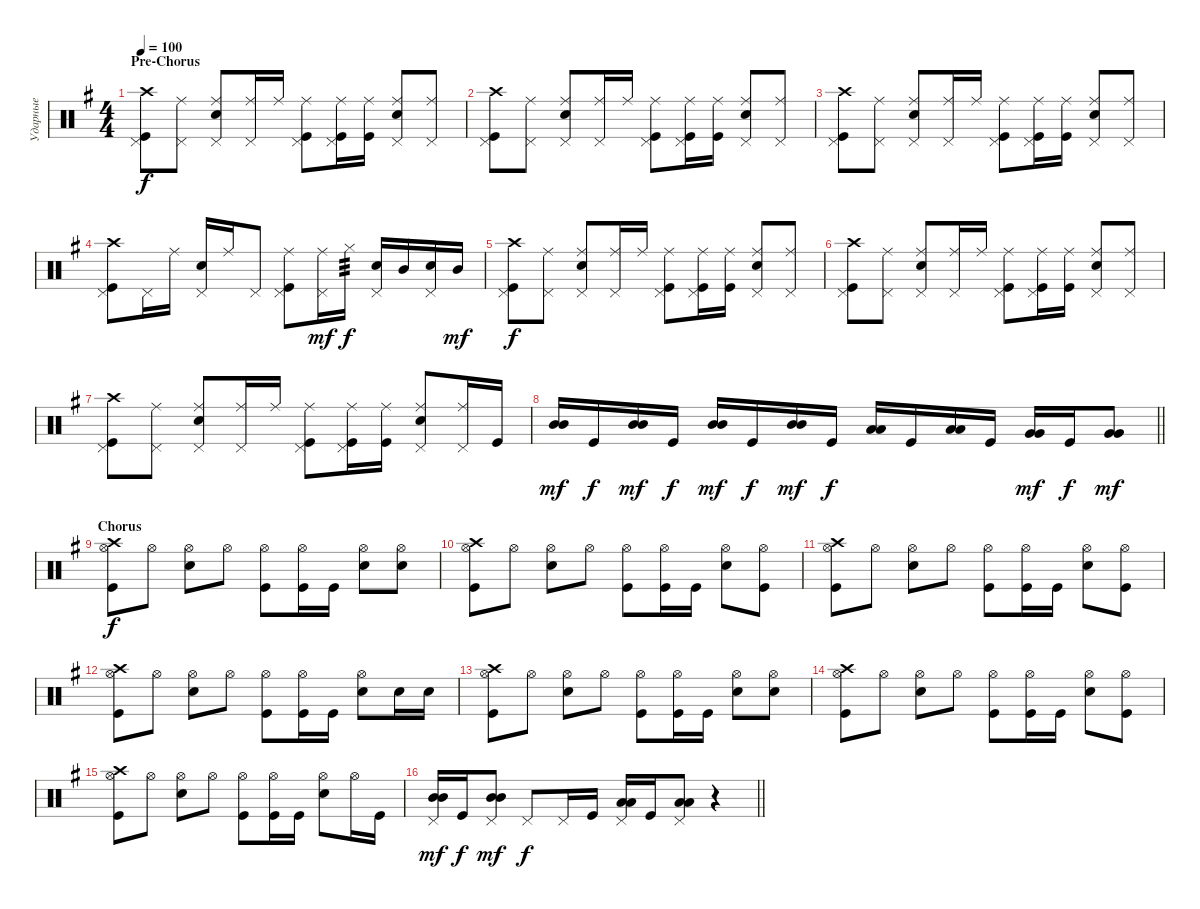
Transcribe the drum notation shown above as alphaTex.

\track ("Ударные" "Ударные") {instrument percussion}
\staff {score}
\articulation defaults
\ts (4 4)
\section ("" "Pre-Chorus")
\tempo 100
\clef neutral
\ks eminor
("Crash high (hit)" "Kick (hit)" "Pedal Hi-Hat (hit)").8{dy f} ("Pedal Hi-Hat (hit)" "Ride (middle)").8 ("Ride (middle)" "Snare (hit) 2" "Pedal Hi-Hat (hit)").8 ("Ride (middle)" "Pedal Hi-Hat (hit)").16 "Ride (middle)".16 ("Ride (middle)" "Kick (hit)" "Pedal Hi-Hat (hit)").8 ("Ride (middle)" "Pedal Hi-Hat (hit)" "Kick (hit)").16 ("Ride (middle)" "Kick (hit)").16 ("Ride (middle)" "Snare (hit) 2" "Pedal Hi-Hat (hit)").8 ("Ride (middle)" "Pedal Hi-Hat (hit)").8 |
("Crash high (hit)" "Kick (hit)" "Pedal Hi-Hat (hit)").8 ("Pedal Hi-Hat (hit)" "Ride (middle)").8 ("Ride (middle)" "Snare (hit) 2" "Pedal Hi-Hat (hit)").8 ("Ride (middle)" "Pedal Hi-Hat (hit)").16 "Ride (middle)".16 ("Ride (middle)" "Kick (hit)" "Pedal Hi-Hat (hit)").8 ("Ride (middle)" "Pedal Hi-Hat (hit)" "Kick (hit)").16 ("Ride (middle)" "Kick (hit)").16 ("Ride (middle)" "Snare (hit) 2" "Pedal Hi-Hat (hit)").8 ("Ride (middle)" "Pedal Hi-Hat (hit)").8 |
("Crash high (hit)" "Kick (hit)" "Pedal Hi-Hat (hit)").8 ("Pedal Hi-Hat (hit)" "Ride (middle)").8 ("Ride (middle)" "Snare (hit) 2" "Pedal Hi-Hat (hit)").8 ("Ride (middle)" "Pedal Hi-Hat (hit)").16 "Ride (middle)".16 ("Ride (middle)" "Kick (hit)" "Pedal Hi-Hat (hit)").8 ("Ride (middle)" "Pedal Hi-Hat (hit)" "Kick (hit)").16 ("Ride (middle)" "Kick (hit)").16 ("Ride (middle)" "Snare (hit) 2" "Pedal Hi-Hat (hit)").8 ("Ride (middle)" "Pedal Hi-Hat (hit)").8 |
("Crash high (hit)" "Kick (hit)" "Pedal Hi-Hat (hit)").8 "Pedal Hi-Hat (hit)".16 "Ride (middle)".16 ("Snare (hit) 2" "Pedal Hi-Hat (hit)").16 "Ride (middle)".16 "Pedal Hi-Hat (hit)".8 ("Ride (middle)" "Kick (hit)" "Pedal Hi-Hat (hit)").8 ("Pedal Hi-Hat (hit)" "Ride (middle)").16{dy mf} "Hi-Hat (closed)".16{tp 3 dy f} ("Snare (hit) 2" "Pedal Hi-Hat (hit)").16 "Mid Tom (hit)".16 ("Snare (hit) 2" "Pedal Hi-Hat (hit)").16 "Mid Tom (hit)".16{dy mf} |
("Crash high (hit)" "Kick (hit)" "Pedal Hi-Hat (hit)").8{dy f} ("Pedal Hi-Hat (hit)" "Ride (middle)").8 ("Ride (middle)" "Snare (hit) 2" "Pedal Hi-Hat (hit)").8 ("Ride (middle)" "Pedal Hi-Hat (hit)").16 "Ride (middle)".16 ("Ride (middle)" "Kick (hit)" "Pedal Hi-Hat (hit)").8 ("Ride (middle)" "Pedal Hi-Hat (hit)" "Kick (hit)").16 ("Ride (middle)" "Kick (hit)").16 ("Ride (middle)" "Snare (hit) 2" "Pedal Hi-Hat (hit)").8 ("Ride (middle)" "Pedal Hi-Hat (hit)").8 |
("Crash high (hit)" "Kick (hit)" "Pedal Hi-Hat (hit)").8 ("Pedal Hi-Hat (hit)" "Ride (middle)").8 ("Ride (middle)" "Snare (hit) 2" "Pedal Hi-Hat (hit)").8 ("Ride (middle)" "Pedal Hi-Hat (hit)").16 "Ride (middle)".16 ("Ride (middle)" "Kick (hit)" "Pedal Hi-Hat (hit)").8 ("Ride (middle)" "Pedal Hi-Hat (hit)" "Kick (hit)").16 ("Ride (middle)" "Kick (hit)").16 ("Ride (middle)" "Snare (hit) 2" "Pedal Hi-Hat (hit)").8 ("Ride (middle)" "Pedal Hi-Hat (hit)").8 |
("Crash high (hit)" "Kick (hit)" "Pedal Hi-Hat (hit)").8 ("Pedal Hi-Hat (hit)" "Ride (middle)").8 ("Ride (middle)" "Snare (hit) 2" "Pedal Hi-Hat (hit)").8 ("Ride (middle)" "Pedal Hi-Hat (hit)").16 "Ride (middle)".16 ("Ride (middle)" "Kick (hit)" "Pedal Hi-Hat (hit)").8 ("Ride (middle)" "Pedal Hi-Hat (hit)" "Kick (hit)").16 ("Ride (middle)" "Kick (hit)").16 ("Ride (middle)" "Snare (hit) 2" "Pedal Hi-Hat (hit)").8 ("Ride (middle)" "Pedal Hi-Hat (hit)").16 "Kick (hit)".16 |
\barLineRight lightlight
("Mid Tom (hit)" "Mid Tom (hit)").16{bd 60 dy mf} "Kick (hit)".16{dy f} ("Mid Tom (hit)" "Mid Tom (hit)").16{bd 120 dy mf} "Kick (hit)".16{dy f} ("Mid Tom (hit)" "Mid Tom (hit)").16{bd 60 dy mf} "Kick (hit)".16{dy f} ("Mid Tom (hit)" "Mid Tom (hit)").16{bd 120 dy mf} "Kick (hit)".16{dy f} ("Low Tom (hit)" "Low Tom (hit)").16{bd 120} "Kick (hit)".16 ("Low Tom (hit)" "Low Tom (hit)").16{bd 120} "Kick (hit)".16 ("Very Low Tom (hit)" "Very Low Tom (hit)").16{bd 120 dy mf} "Kick (hit)".16{dy f} ("Very Low Tom (hit)" "Very Low Tom (hit)").8{bd 120 dy mf} |
\section ("" "Chorus")
("Hi-Hat (open)" "Crash high (hit)" "Kick (hit)").8{dy f} "Hi-Hat (open)".8 ("Hi-Hat (open)" "Snare (hit) 2").8 "Hi-Hat (open)".8 ("Hi-Hat (open)" "Kick (hit)").8 ("Hi-Hat (open)" "Kick (hit)").16 "Kick (hit)".16 ("Hi-Hat (open)" "Snare (hit) 2").8 ("Hi-Hat (open)" "Snare (hit) 2").8 |
("Hi-Hat (open)" "Crash high (hit)" "Kick (hit)").8 "Hi-Hat (open)".8 ("Hi-Hat (open)" "Snare (hit) 2").8 "Hi-Hat (open)".8 ("Hi-Hat (open)" "Kick (hit)").8 ("Hi-Hat (open)" "Kick (hit)").16 "Kick (hit)".16 ("Hi-Hat (open)" "Snare (hit) 2").8 ("Hi-Hat (open)" "Kick (hit)").8 |
("Hi-Hat (open)" "Crash high (hit)" "Kick (hit)").8 "Hi-Hat (open)".8 ("Hi-Hat (open)" "Snare (hit) 2").8 "Hi-Hat (open)".8 ("Hi-Hat (open)" "Kick (hit)").8 ("Hi-Hat (open)" "Kick (hit)").16 "Kick (hit)".16 ("Hi-Hat (open)" "Snare (hit) 2").8 ("Hi-Hat (open)" "Kick (hit)").8 |
("Hi-Hat (open)" "Crash high (hit)" "Kick (hit)").8 "Hi-Hat (open)".8 ("Hi-Hat (open)" "Snare (hit) 2").8 "Hi-Hat (open)".8 ("Hi-Hat (open)" "Kick (hit)").8 ("Hi-Hat (open)" "Kick (hit)").16 "Kick (hit)".16 ("Hi-Hat (open)" "Snare (hit) 2").8 "Snare (hit) 2".16 "Snare (hit) 2".16 |
("Hi-Hat (open)" "Crash high (hit)" "Kick (hit)").8 "Hi-Hat (open)".8 ("Hi-Hat (open)" "Snare (hit) 2").8 "Hi-Hat (open)".8 ("Hi-Hat (open)" "Kick (hit)").8 ("Hi-Hat (open)" "Kick (hit)").16 "Kick (hit)".16 ("Hi-Hat (open)" "Snare (hit) 2").8 ("Hi-Hat (open)" "Snare (hit) 2").8 |
("Hi-Hat (open)" "Crash high (hit)" "Kick (hit)").8 "Hi-Hat (open)".8 ("Hi-Hat (open)" "Snare (hit) 2").8 "Hi-Hat (open)".8 ("Hi-Hat (open)" "Kick (hit)").8 ("Hi-Hat (open)" "Kick (hit)").16 "Kick (hit)".16 ("Hi-Hat (open)" "Snare (hit) 2").8 ("Hi-Hat (open)" "Kick (hit)").8 |
("Hi-Hat (open)" "Crash high (hit)" "Kick (hit)").8 "Hi-Hat (open)".8 ("Hi-Hat (open)" "Snare (hit) 2").8 "Hi-Hat (open)".8 ("Hi-Hat (open)" "Kick (hit)").8 ("Hi-Hat (open)" "Kick (hit)").16 "Kick (hit)".16 ("Hi-Hat (open)" "Snare (hit) 2").8 "Hi-Hat (open)".16 "Kick (hit)".16 |
\barLineRight lightlight
("Mid Tom (hit)" "Mid Tom (hit)" "Pedal Hi-Hat (hit)").16{bd 120 dy mf} "Kick (hit)".16{dy f} ("Pedal Hi-Hat (hit)" "Mid Tom (hit)" "Mid Tom (hit)").8{bd 120 dy mf} "Pedal Hi-Hat (hit)".8{dy f} "Pedal Hi-Hat (hit)".16 "Kick (hit)".16 ("Low Tom (hit)" "Low Tom (hit)" "Pedal Hi-Hat (hit)").16{bd 120} "Kick (hit)".16 ("Low Tom (hit)" "Low Tom (hit)" "Pedal Hi-Hat (hit)").8{bd 120} r.4
